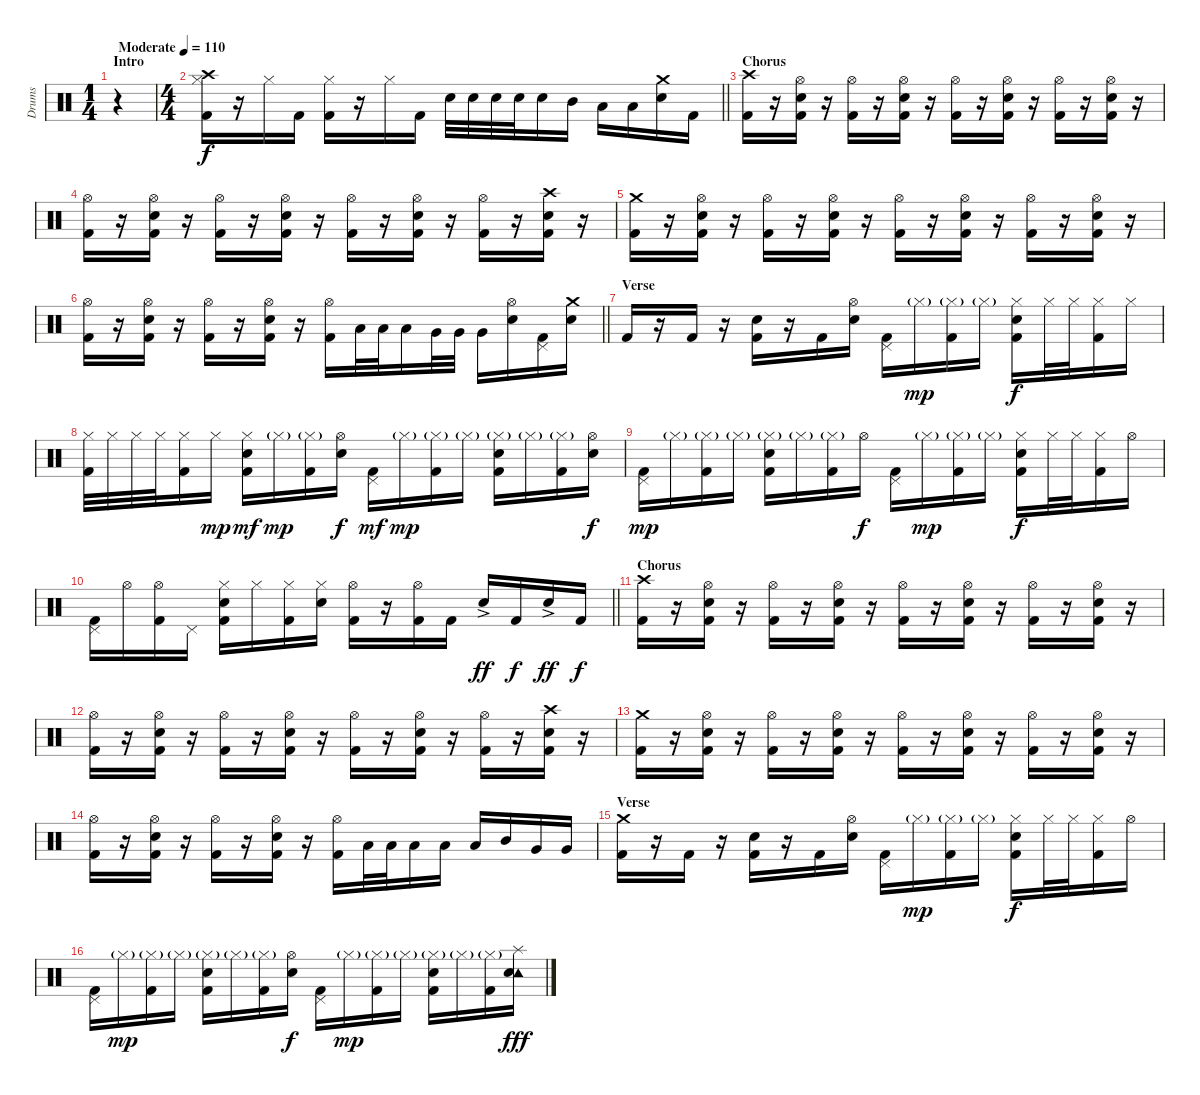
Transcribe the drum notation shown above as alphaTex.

\track ("Drums" "Drums") {instrument percussion}
\staff {score}
\articulation defaults
\ts (1 4)
\section ("" "Intro")
\tempo (110 "Moderate")
\clef neutral
\ks c
r.4{dy f} |
\ts (4 4)
\barLineRight lightlight
("Crash high (hit)" "Hi-Hat (closed)" "Kick (hit) 2").16 r.16 "Hi-Hat (closed)".16 "Kick (hit) 2".16 ("Hi-Hat (closed)" "Kick (hit) 2").16 r.16 "Hi-Hat (closed)".16 "Kick (hit) 2".16 "Electric Snare (hit)".32 "Electric Snare (hit)".32 "Electric Snare (hit)".32 "Electric Snare (hit)".32 "Electric Snare (hit)".16 "Mid Tom (hit)".16 "Low Tom (hit)".16 "Low Tom (hit)".16 ("Crash medium (hit)" "Electric Snare (hit)").16 "Kick (hit) 2".16 |
\section ("" "Chorus")
("Crash high (hit)" "Kick (hit) 2").16 r.16 ("Hi-Hat (open)" "Electric Snare (hit)" "Kick (hit) 2").16 r.16 ("Hi-Hat (open)" "Kick (hit) 2").16 r.16 ("Hi-Hat (open)" "Electric Snare (hit)" "Kick (hit) 2").16 r.16 ("Hi-Hat (open)" "Kick (hit) 2").16 r.16 ("Hi-Hat (open)" "Electric Snare (hit)" "Kick (hit) 2").16 r.16 ("Hi-Hat (open)" "Kick (hit) 2").16 r.16 ("Hi-Hat (open)" "Electric Snare (hit)" "Kick (hit) 2").16 r.16 |
("Hi-Hat (open)" "Kick (hit) 2").16 r.16 ("Hi-Hat (open)" "Electric Snare (hit)" "Kick (hit) 2").16 r.16 ("Hi-Hat (open)" "Kick (hit) 2").16 r.16 ("Hi-Hat (open)" "Electric Snare (hit)" "Kick (hit) 2").16 r.16 ("Hi-Hat (open)" "Kick (hit) 2").16 r.16 ("Hi-Hat (open)" "Electric Snare (hit)" "Kick (hit) 2").16 r.16 ("Hi-Hat (open)" "Kick (hit) 2").16 r.16 ("Crash high (hit)" "Electric Snare (hit)" "Kick (hit) 2").16 r.16 |
("Crash medium (hit)" "Kick (hit) 2").16 r.16 ("Hi-Hat (open)" "Electric Snare (hit)" "Kick (hit) 2").16 r.16 ("Hi-Hat (open)" "Kick (hit) 2").16 r.16 ("Hi-Hat (open)" "Electric Snare (hit)" "Kick (hit) 2").16 r.16 ("Hi-Hat (open)" "Kick (hit) 2").16 r.16 ("Hi-Hat (open)" "Electric Snare (hit)" "Kick (hit) 2").16 r.16 ("Hi-Hat (open)" "Kick (hit) 2").16 r.16 ("Hi-Hat (open)" "Electric Snare (hit)" "Kick (hit) 2").16 r.16 |
\barLineRight lightlight
("Hi-Hat (open)" "Kick (hit) 2").16 r.16 ("Hi-Hat (open)" "Electric Snare (hit)" "Kick (hit) 2").16 r.16 ("Hi-Hat (open)" "Kick (hit) 2").16 r.16 ("Hi-Hat (open)" "Electric Snare (hit)" "Kick (hit) 2").16 r.16 ("Hi-Hat (open)" "Kick (hit) 2").16 "Low Tom (hit)".32 "Low Tom (hit)".32 "Low Tom (hit)".16 "Very Low Tom (hit)".32 "Very Low Tom (hit)".32 "Very Low Tom (hit)".16 ("Hi-Hat (open)" "Electric Snare (hit)").16 ("Pedal Hi-Hat (hit)" "Kick (hit) 2").16 ("Crash medium (hit)" "Electric Snare (hit)").16 |
\section ("" "Verse")
"Kick (hit) 2".16 r.16 "Kick (hit) 2".16 r.16 ("Electric Snare (hit)" "Kick (hit) 2").16 r.16 "Kick (hit) 2".16 ("Hi-Hat (open)" "Electric Snare (hit)").16 ("Pedal Hi-Hat (hit)" "Kick (hit) 2").16 "Hi-Hat (closed)"{g}.16{dy mp} ("Hi-Hat (closed)"{g} "Kick (hit) 2").16 "Hi-Hat (closed)"{g}.16 ("Hi-Hat (closed)" "Electric Snare (hit)" "Kick (hit) 2").16{dy f} "Hi-Hat (closed)".32 "Hi-Hat (closed)".32 ("Hi-Hat (closed)" "Kick (hit) 2").16 "Hi-Hat (closed)".16 |
("Hi-Hat (closed)" "Kick (hit) 2").32 "Hi-Hat (closed)".32 "Hi-Hat (closed)".32 "Hi-Hat (closed)".32 ("Hi-Hat (closed)" "Kick (hit) 2").16 "Hi-Hat (closed)".16{dy mp} ("Hi-Hat (closed)" "Electric Snare (hit)" "Kick (hit) 2").16{dy mf} "Hi-Hat (closed)"{g}.16{dy mp} ("Hi-Hat (closed)"{g} "Kick (hit) 2").16 ("Hi-Hat (open)" "Electric Snare (hit)").16{dy f} ("Pedal Hi-Hat (hit)" "Kick (hit) 2").16{dy mf} "Hi-Hat (closed)"{g}.16{dy mp} ("Hi-Hat (closed)"{g} "Kick (hit) 2").16 "Hi-Hat (closed)"{g}.16 ("Hi-Hat (closed)"{g} "Electric Snare (hit)" "Kick (hit) 2").16 "Hi-Hat (closed)"{g}.16 ("Hi-Hat (closed)"{g} "Kick (hit) 2").16 ("Hi-Hat (open)" "Electric Snare (hit)").16{dy f} |
("Pedal Hi-Hat (hit)" "Kick (hit) 2").16{dy mp} "Hi-Hat (closed)"{g}.16 ("Hi-Hat (closed)"{g} "Kick (hit) 2").16 "Hi-Hat (closed)"{g}.16 ("Hi-Hat (closed)"{g} "Electric Snare (hit)" "Kick (hit) 2").16 "Hi-Hat (closed)"{g}.16 ("Hi-Hat (closed)"{g} "Kick (hit) 2").16 "Hi-Hat (open)".16{dy f} ("Pedal Hi-Hat (hit)" "Kick (hit) 2").16 "Hi-Hat (closed)"{g}.16{dy mp} ("Hi-Hat (closed)"{g} "Kick (hit) 2").16 "Hi-Hat (closed)"{g}.16 ("Hi-Hat (closed)" "Electric Snare (hit)" "Kick (hit) 2").16{dy f} "Hi-Hat (closed)".32 "Hi-Hat (closed)".32 ("Hi-Hat (closed)" "Kick (hit) 2").16 "Hi-Hat (open)".16 |
\barLineRight lightlight
("Pedal Hi-Hat (hit)" "Kick (hit) 2").16 "Hi-Hat (open)".16 ("Hi-Hat (open)" "Kick (hit) 2").16 "Pedal Hi-Hat (hit)".16 ("Hi-Hat (closed)" "Electric Snare (hit)" "Kick (hit) 2").16 "Hi-Hat (closed)".16 ("Hi-Hat (closed)" "Kick (hit) 2").16 ("Hi-Hat (closed)" "Electric Snare (hit)").16 ("Hi-Hat (open)" "Kick (hit) 2").16 r.16 ("Hi-Hat (open)" "Kick (hit) 2").16 "Kick (hit) 2".16 "Electric Snare (hit)"{ac}.16{dy ff} "Kick (hit) 2".16{dy f} "Electric Snare (hit)"{ac}.16{dy ff} "Kick (hit) 2".16{dy f} |
\section ("" "Chorus")
("Crash high (hit)" "Kick (hit) 2").16 r.16 ("Hi-Hat (open)" "Electric Snare (hit)" "Kick (hit) 2").16 r.16 ("Hi-Hat (open)" "Kick (hit) 2").16 r.16 ("Hi-Hat (open)" "Electric Snare (hit)" "Kick (hit) 2").16 r.16 ("Hi-Hat (open)" "Kick (hit) 2").16 r.16 ("Hi-Hat (open)" "Electric Snare (hit)" "Kick (hit) 2").16 r.16 ("Hi-Hat (open)" "Kick (hit) 2").16 r.16 ("Hi-Hat (open)" "Electric Snare (hit)" "Kick (hit) 2").16 r.16 |
("Hi-Hat (open)" "Kick (hit) 2").16 r.16 ("Hi-Hat (open)" "Electric Snare (hit)" "Kick (hit) 2").16 r.16 ("Hi-Hat (open)" "Kick (hit) 2").16 r.16 ("Hi-Hat (open)" "Electric Snare (hit)" "Kick (hit) 2").16 r.16 ("Hi-Hat (open)" "Kick (hit) 2").16 r.16 ("Hi-Hat (open)" "Electric Snare (hit)" "Kick (hit) 2").16 r.16 ("Hi-Hat (open)" "Kick (hit) 2").16 r.16 ("Crash high (hit)" "Electric Snare (hit)" "Kick (hit) 2").16 r.16 |
("Crash medium (hit)" "Kick (hit) 2").16 r.16 ("Hi-Hat (open)" "Electric Snare (hit)" "Kick (hit) 2").16 r.16 ("Hi-Hat (open)" "Kick (hit) 2").16 r.16 ("Hi-Hat (open)" "Electric Snare (hit)" "Kick (hit) 2").16 r.16 ("Hi-Hat (open)" "Kick (hit) 2").16 r.16 ("Hi-Hat (open)" "Electric Snare (hit)" "Kick (hit) 2").16 r.16 ("Hi-Hat (open)" "Kick (hit) 2").16 r.16 ("Hi-Hat (open)" "Electric Snare (hit)" "Kick (hit) 2").16 r.16 |
("Hi-Hat (open)" "Kick (hit) 2").16 r.16 ("Hi-Hat (open)" "Electric Snare (hit)" "Kick (hit) 2").16 r.16 ("Hi-Hat (open)" "Kick (hit) 2").16 r.16 ("Hi-Hat (open)" "Electric Snare (hit)" "Kick (hit) 2").16 r.16 ("Hi-Hat (open)" "Kick (hit) 2").16 "Low Tom (hit)".32 "Low Tom (hit)".32 "Low Tom (hit)".16 "Low Tom (hit)".16 "Low Tom (hit)".16 "Mid Tom (hit)".16 "Very Low Tom (hit)".16 "Very Low Tom (hit)".16 |
\section ("" "Verse")
("Crash medium (hit)" "Kick (hit) 2").16 r.16 "Kick (hit) 2".16 r.16 ("Electric Snare (hit)" "Kick (hit) 2").16 r.16 "Kick (hit) 2".16 ("Hi-Hat (open)" "Electric Snare (hit)").16 ("Pedal Hi-Hat (hit)" "Kick (hit) 2").16 "Hi-Hat (closed)"{g}.16{dy mp} ("Hi-Hat (closed)"{g} "Kick (hit) 2").16 "Hi-Hat (closed)"{g}.16 ("Hi-Hat (closed)" "Electric Snare (hit)" "Kick (hit) 2").16{dy f} "Hi-Hat (closed)".32 "Hi-Hat (closed)".32 ("Hi-Hat (closed)" "Kick (hit) 2").16 "Hi-Hat (open)".16 |
("Pedal Hi-Hat (hit)" "Kick (hit) 2").16 "Hi-Hat (closed)"{g}.16{dy mp} ("Hi-Hat (closed)"{g} "Kick (hit) 2").16 "Hi-Hat (closed)"{g}.16 ("Hi-Hat (closed)"{g} "Electric Snare (hit)" "Kick (hit) 2").16 "Hi-Hat (closed)"{g}.16 ("Hi-Hat (closed)"{g} "Kick (hit) 2").16 ("Hi-Hat (open)" "Electric Snare (hit)").16{dy f} ("Pedal Hi-Hat (hit)" "Kick (hit) 2").16 "Hi-Hat (closed)"{g}.16{dy mp} ("Hi-Hat (closed)"{g} "Kick (hit) 2").16 "Hi-Hat (closed)"{g}.16 ("Hi-Hat (closed)"{g} "Electric Snare (hit)" "Kick (hit) 2").16 "Hi-Hat (closed)"{g}.16 ("Hi-Hat (closed)"{g} "Kick (hit) 2").16 ("Tambourine (hit)" "Splash (hit)" "Electric Snare (hit)").16{dy fff}
